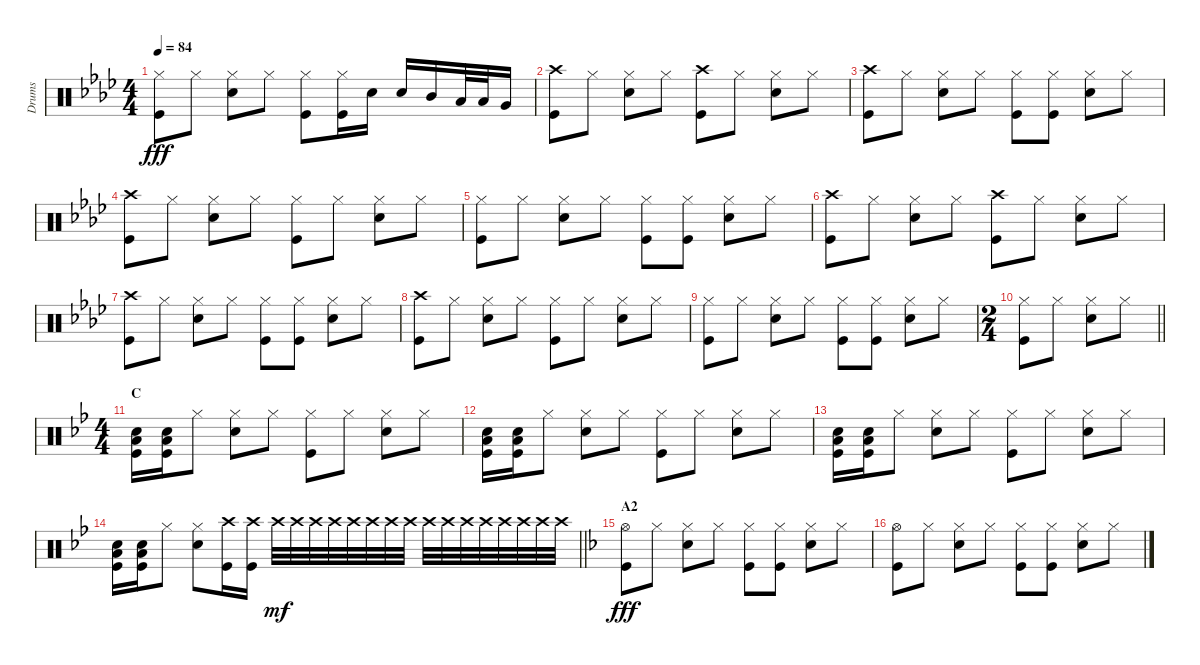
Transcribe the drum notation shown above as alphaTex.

\track ("Drums" "Drums") {instrument percussion}
\staff {score}
\articulation defaults
\ts (4 4)
\tempo 84
\clef neutral
\ks ab
("Hi-Hat (closed)" "Kick (hit)").8{dy fff} "Hi-Hat (closed)".8 ("Hi-Hat (closed)" "Snare (hit) 2").8 "Hi-Hat (closed)".8 ("Hi-Hat (closed)" "Kick (hit)").8 ("Hi-Hat (closed)" "Kick (hit)").16 "Snare (hit) 2".16 "Snare (hit) 2".16 "Mid Tom (hit)".16 "Low Tom (hit)".32 "Low Tom (hit)".32 "Very Low Tom (hit)".16 |
("Crash high (hit)" "Kick (hit)").8 "Hi-Hat (closed)".8 ("Hi-Hat (closed)" "Snare (hit) 2").8 "Hi-Hat (closed)".8 ("Crash high (hit)" "Kick (hit)").8 "Hi-Hat (closed)".8 ("Hi-Hat (closed)" "Snare (hit) 2").8 "Hi-Hat (closed)".8 |
("Crash high (hit)" "Kick (hit)").8 "Hi-Hat (closed)".8 ("Hi-Hat (closed)" "Snare (hit) 2").8 "Hi-Hat (closed)".8 ("Hi-Hat (closed)" "Kick (hit)").8 ("Hi-Hat (closed)" "Kick (hit)").8 ("Hi-Hat (closed)" "Snare (hit) 2").8 "Hi-Hat (closed)".8 |
("Crash high (hit)" "Kick (hit)").8 "Hi-Hat (closed)".8 ("Hi-Hat (closed)" "Snare (hit) 2").8 "Hi-Hat (closed)".8 ("Hi-Hat (closed)" "Kick (hit)").8 "Hi-Hat (closed)".8 ("Hi-Hat (closed)" "Snare (hit) 2").8 "Hi-Hat (closed)".8 |
("Hi-Hat (closed)" "Kick (hit)").8 "Hi-Hat (closed)".8 ("Hi-Hat (closed)" "Snare (hit) 2").8 "Hi-Hat (closed)".8 ("Hi-Hat (closed)" "Kick (hit)").8 ("Hi-Hat (closed)" "Kick (hit)").8 ("Hi-Hat (closed)" "Snare (hit) 2").8 "Hi-Hat (closed)".8 |
("Crash high (hit)" "Kick (hit)").8 "Hi-Hat (closed)".8 ("Hi-Hat (closed)" "Snare (hit) 2").8 "Hi-Hat (closed)".8 ("Crash high (hit)" "Kick (hit)").8 "Hi-Hat (closed)".8 ("Hi-Hat (closed)" "Snare (hit) 2").8 "Hi-Hat (closed)".8 |
("Crash high (hit)" "Kick (hit)").8 "Hi-Hat (closed)".8 ("Hi-Hat (closed)" "Snare (hit) 2").8 "Hi-Hat (closed)".8 ("Hi-Hat (closed)" "Kick (hit)").8 ("Hi-Hat (closed)" "Kick (hit)").8 ("Hi-Hat (closed)" "Snare (hit) 2").8 "Hi-Hat (closed)".8 |
("Crash high (hit)" "Kick (hit)").8 "Hi-Hat (closed)".8 ("Hi-Hat (closed)" "Snare (hit) 2").8 "Hi-Hat (closed)".8 ("Hi-Hat (closed)" "Kick (hit)").8 "Hi-Hat (closed)".8 ("Hi-Hat (closed)" "Snare (hit) 2").8 "Hi-Hat (closed)".8 |
("Hi-Hat (closed)" "Kick (hit)").8 "Hi-Hat (closed)".8 ("Hi-Hat (closed)" "Snare (hit) 2").8 "Hi-Hat (closed)".8 ("Hi-Hat (closed)" "Kick (hit)").8 ("Hi-Hat (closed)" "Kick (hit)").8 ("Hi-Hat (closed)" "Snare (hit) 2").8 "Hi-Hat (closed)".8 |
\ts (2 4)
\barLineRight lightlight
("Hi-Hat (closed)" "Kick (hit)").8 "Hi-Hat (closed)".8 ("Hi-Hat (closed)" "Snare (hit) 2").8 "Hi-Hat (closed)".8 |
\ts (4 4)
\section ("" "C")
\ks bb
("Low Floor Tom (hit)" "Snare (hit) 2" "Kick (hit)").16 ("Low Floor Tom (hit)" "Snare (hit) 2" "Kick (hit)").16 "Hi-Hat (closed)".8 ("Hi-Hat (closed)" "Snare (hit) 2").8 "Hi-Hat (closed)".8 ("Hi-Hat (closed)" "Kick (hit)").8 "Hi-Hat (closed)".8 ("Hi-Hat (closed)" "Snare (hit) 2").8 "Hi-Hat (closed)".8 |
("Low Floor Tom (hit)" "Snare (hit) 2" "Kick (hit)").16 ("Low Floor Tom (hit)" "Snare (hit) 2" "Kick (hit)").16 "Hi-Hat (closed)".8 ("Hi-Hat (closed)" "Snare (hit) 2").8 "Hi-Hat (closed)".8 ("Hi-Hat (closed)" "Kick (hit)").8 "Hi-Hat (closed)".8 ("Hi-Hat (closed)" "Snare (hit) 2").8 "Hi-Hat (closed)".8 |
("Low Floor Tom (hit)" "Snare (hit) 2" "Kick (hit)").16 ("Low Floor Tom (hit)" "Snare (hit) 2" "Kick (hit)").16 "Hi-Hat (closed)".8 ("Hi-Hat (closed)" "Snare (hit) 2").8 "Hi-Hat (closed)".8 ("Hi-Hat (closed)" "Kick (hit)").8 "Hi-Hat (closed)".8 ("Hi-Hat (closed)" "Snare (hit) 2").8 "Hi-Hat (closed)".8 |
\barLineRight lightlight
("Low Floor Tom (hit)" "Snare (hit) 2" "Kick (hit)").16 ("Low Floor Tom (hit)" "Snare (hit) 2" "Kick (hit)").16 "Hi-Hat (closed)".8 ("Hi-Hat (closed)" "Snare (hit) 2").8 ("Crash high (hit)" "Kick (hit)").16 ("Crash high (hit)" "Kick (hit)").16 "Crash high (hit)".32{dy mf} "Crash high (hit)".32 "Crash high (hit)".32 "Crash high (hit)".32 "Crash high (hit)".32 "Crash high (hit)".32 "Crash high (hit)".32 "Crash high (hit)".32 "Crash high (hit)".32 "Crash high (hit)".32 "Crash high (hit)".32 "Crash high (hit)".32 "Crash high (hit)".32 "Crash high (hit)".32 "Crash high (hit)".32 "Crash high (hit)".32 |
\section ("" "A2")
\ks f
("Hi-Hat (open)" "Kick (hit)").8{dy fff} "Hi-Hat (closed)".8 ("Hi-Hat (closed)" "Snare (hit) 2").8 "Hi-Hat (closed)".8 ("Hi-Hat (closed)" "Kick (hit)").8 ("Hi-Hat (closed)" "Kick (hit)").8 ("Hi-Hat (closed)" "Snare (hit) 2").8 "Hi-Hat (closed)".8 |
("Hi-Hat (open)" "Kick (hit)").8 "Hi-Hat (closed)".8 ("Hi-Hat (closed)" "Snare (hit) 2").8 "Hi-Hat (closed)".8 ("Hi-Hat (closed)" "Kick (hit)").8 ("Hi-Hat (closed)" "Kick (hit)").8 ("Hi-Hat (closed)" "Snare (hit) 2").8 "Hi-Hat (closed)".8
